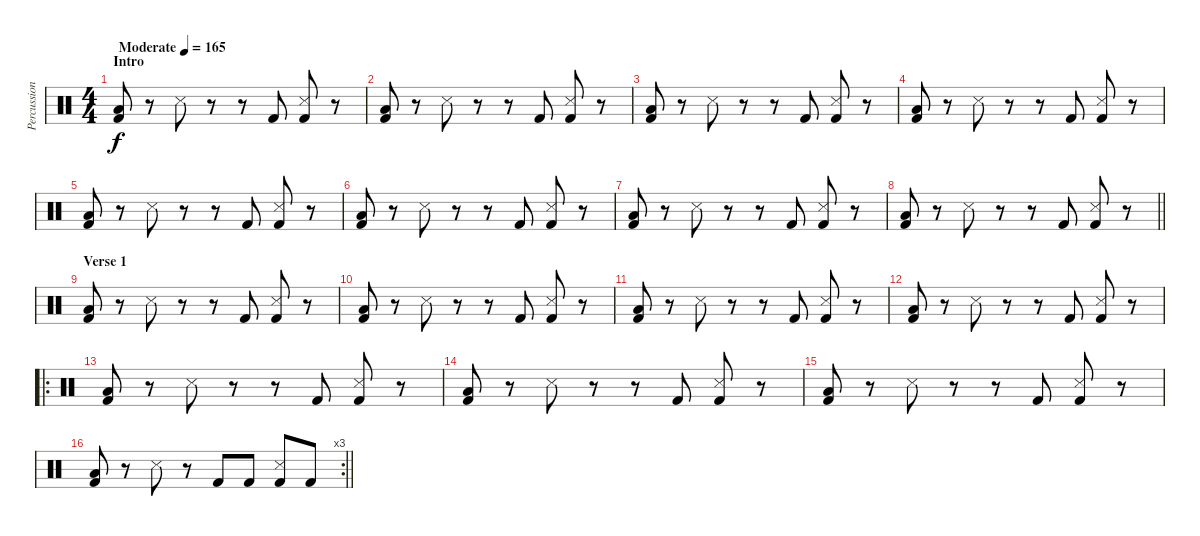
\track ("Percussion" "Percussion") {instrument percussion}
\staff {score}
\articulation defaults
\ts (4 4)
\section ("" "Intro")
\tempo (165 "Moderate")
\clef neutral
\ks c
("Low Floor Tom (hit)" "Kick (hit) 2").8{dy f volume 8} r.8 "Snare (side stick) 3".8 r.8 r.8 "Kick (hit) 2".8 ("Kick (hit) 2" "Snare (side stick) 3").8 r.8 |
("Low Floor Tom (hit)" "Kick (hit) 2").8 r.8 "Snare (side stick) 3".8 r.8 r.8 "Kick (hit) 2".8 ("Kick (hit) 2" "Snare (side stick) 3").8 r.8 |
("Low Floor Tom (hit)" "Kick (hit) 2").8 r.8 "Snare (side stick) 3".8 r.8 r.8 "Kick (hit) 2".8 ("Kick (hit) 2" "Snare (side stick) 3").8 r.8 |
("Low Floor Tom (hit)" "Kick (hit) 2").8 r.8 "Snare (side stick) 3".8 r.8 r.8 "Kick (hit) 2".8 ("Kick (hit) 2" "Snare (side stick) 3").8 r.8 |
("Low Floor Tom (hit)" "Kick (hit) 2").8{volume 8} r.8 "Snare (side stick) 3".8 r.8 r.8 "Kick (hit) 2".8 ("Kick (hit) 2" "Snare (side stick) 3").8 r.8 |
("Low Floor Tom (hit)" "Kick (hit) 2").8 r.8 "Snare (side stick) 3".8 r.8 r.8 "Kick (hit) 2".8 ("Kick (hit) 2" "Snare (side stick) 3").8 r.8 |
("Low Floor Tom (hit)" "Kick (hit) 2").8 r.8 "Snare (side stick) 3".8 r.8 r.8 "Kick (hit) 2".8 ("Kick (hit) 2" "Snare (side stick) 3").8 r.8 |
\barLineRight lightlight
("Low Floor Tom (hit)" "Kick (hit) 2").8 r.8 "Snare (side stick) 3".8 r.8 r.8 "Kick (hit) 2".8 ("Kick (hit) 2" "Snare (side stick) 3").8 r.8 |
\section ("" "Verse 1")
("Low Floor Tom (hit)" "Kick (hit) 2").8{volume 8} r.8 "Snare (side stick) 3".8 r.8 r.8 "Kick (hit) 2".8 ("Kick (hit) 2" "Snare (side stick) 3").8 r.8 |
("Low Floor Tom (hit)" "Kick (hit) 2").8 r.8 "Snare (side stick) 3".8 r.8 r.8 "Kick (hit) 2".8 ("Kick (hit) 2" "Snare (side stick) 3").8 r.8 |
("Low Floor Tom (hit)" "Kick (hit) 2").8 r.8 "Snare (side stick) 3".8 r.8 r.8 "Kick (hit) 2".8 ("Kick (hit) 2" "Snare (side stick) 3").8 r.8 |
("Low Floor Tom (hit)" "Kick (hit) 2").8 r.8 "Snare (side stick) 3".8 r.8 r.8 "Kick (hit) 2".8 ("Kick (hit) 2" "Snare (side stick) 3").8 r.8 |
\ro
("Low Floor Tom (hit)" "Kick (hit) 2").8{volume 8} r.8 "Snare (side stick) 3".8 r.8 r.8 "Kick (hit) 2".8 ("Kick (hit) 2" "Snare (side stick) 3").8 r.8 |
("Low Floor Tom (hit)" "Kick (hit) 2").8 r.8 "Snare (side stick) 3".8 r.8 r.8 "Kick (hit) 2".8 ("Kick (hit) 2" "Snare (side stick) 3").8 r.8 |
("Low Floor Tom (hit)" "Kick (hit) 2").8 r.8 "Snare (side stick) 3".8 r.8 r.8 "Kick (hit) 2".8 ("Kick (hit) 2" "Snare (side stick) 3").8 r.8 |
\rc 3
\barLineRight lightlight
("Low Floor Tom (hit)" "Kick (hit) 2").8 r.8 "Snare (side stick) 3".8 r.8 "Kick (hit) 2".8 "Kick (hit) 2".8 ("Kick (hit) 2" "Snare (side stick) 3").8 "Kick (hit) 2".8
